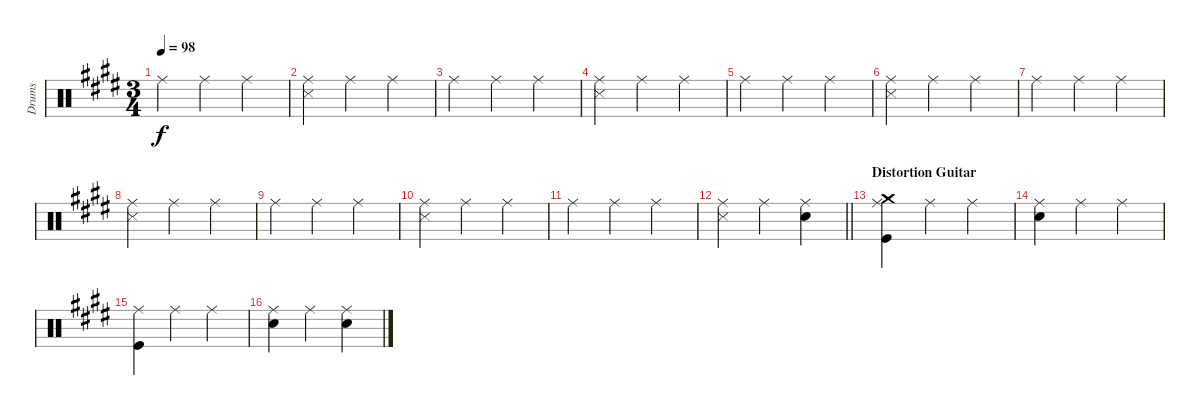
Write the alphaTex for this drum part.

\track ("Drums" "Drums") {instrument percussion}
\staff {score}
\articulation defaults
\ts (3 4)
\tempo 98
\clef neutral
\ks e "Ride (middle)".4{dy f} "Ride (middle)".4 "Ride (middle)".4
|
("Ride (middle)" "Snare (side stick) 3").4 "Ride (middle)".4 "Ride (middle)".4 |
"Ride (middle)".4 "Ride (middle)".4 "Ride (middle)".4 |
("Ride (middle)" "Snare (side stick) 3").4 "Ride (middle)".4 "Ride (middle)".4 |
"Ride (middle)".4 "Ride (middle)".4 "Ride (middle)".4 |
("Ride (middle)" "Snare (side stick) 3").4 "Ride (middle)".4 "Ride (middle)".4 |
"Ride (middle)".4 "Ride (middle)".4 "Ride (middle)".4 |
("Ride (middle)" "Snare (side stick) 3").4 "Ride (middle)".4 "Ride (middle)".4 |
"Ride (middle)".4 "Ride (middle)".4 "Ride (middle)".4 |
("Ride (middle)" "Snare (side stick) 3").4 "Ride (middle)".4 "Ride (middle)".4 |
"Ride (middle)".4 "Ride (middle)".4 "Ride (middle)".4 |
\barLineRight lightlight
("Ride (middle)" "Snare (side stick) 3").4 "Ride (middle)".4 ("Ride (middle)" "Snare (hit) 2").4 |
\section ("" "Distortion Guitar")
("Crash medium (hit)" "Ride (middle)" "Kick (hit)").4 "Ride (middle)".4 "Ride (middle)".4 |
("Ride (middle)" "Snare (hit) 2").4 "Ride (middle)".4 "Ride (middle)".4 |
("Ride (middle)" "Kick (hit)").4 "Ride (middle)".4 "Ride (middle)".4 |
("Ride (middle)" "Snare (hit) 2").4 "Ride (middle)".4 ("Ride (middle)" "Snare (hit) 2").4
